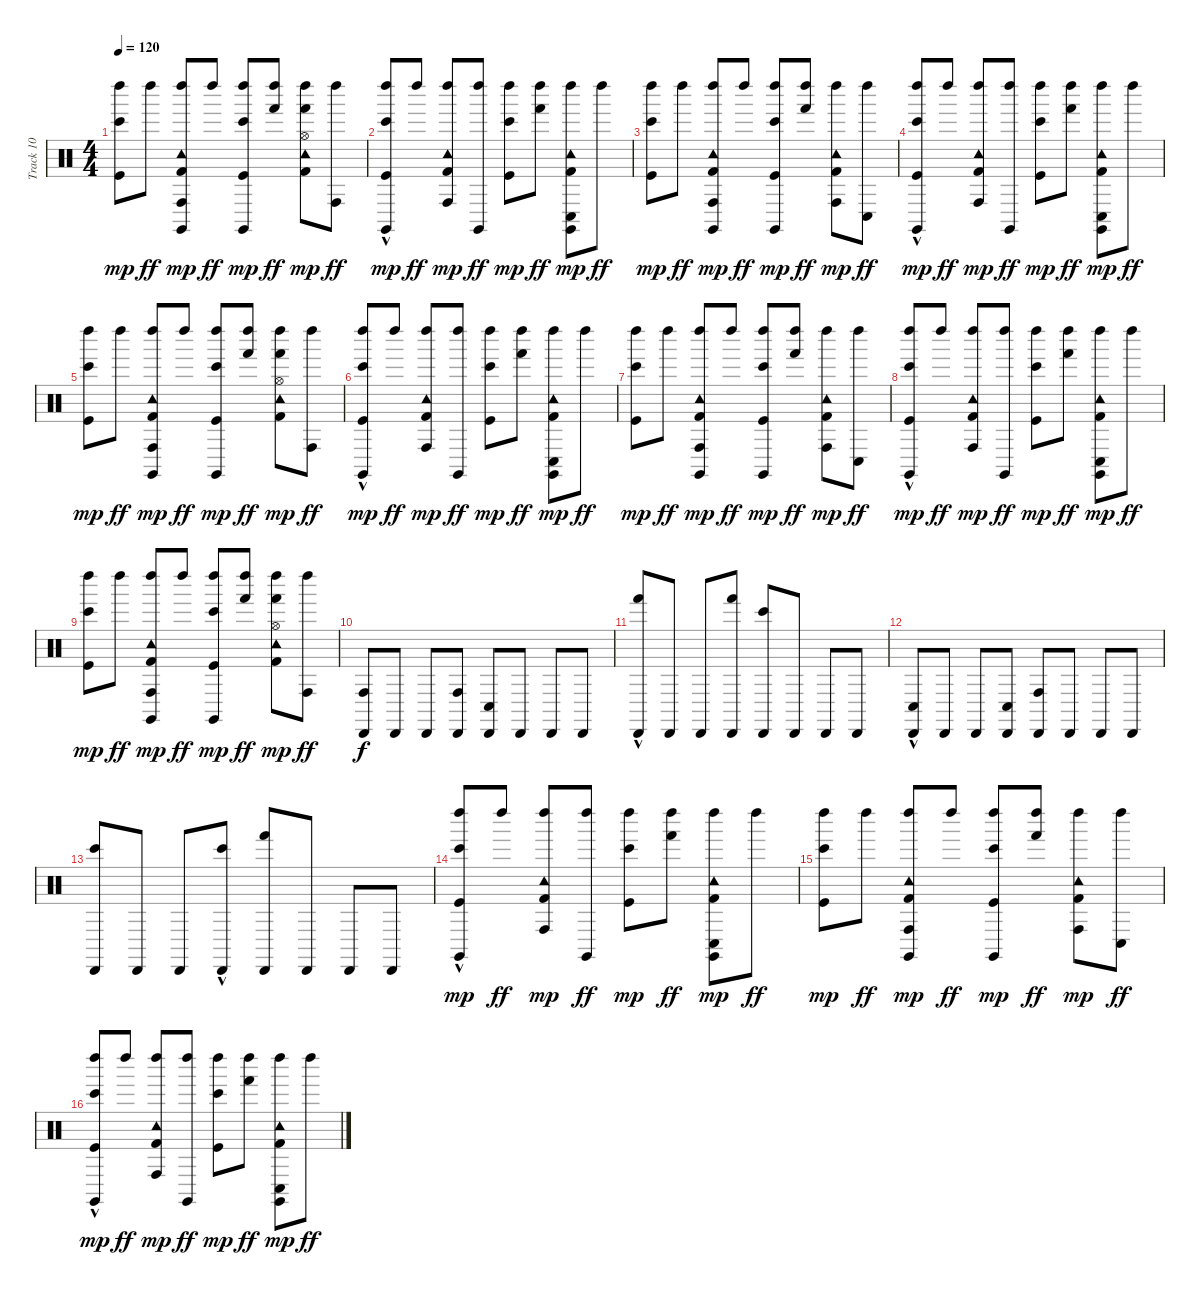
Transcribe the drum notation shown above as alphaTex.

\track ("Track 10" "Track 10") {instrument percussion}
\staff {score}
\articulation defaults
\ts (4 4)
\tempo 120
\clef neutral
\ks c
("Bongo High (hit)" "Left Maraca (hit)" "Kick (hit)").8{dy mp} "Left Maraca (hit)".8{dy ff} ("Conga high (hit)" "Tambourine (hit)" "Left Maraca (hit)" "Kick (hit) 2" "Claves (hit)").8{dy mp} "Left Maraca (hit)".8{dy ff} ("Bongo High (hit)" "Left Maraca (hit)" "Kick (hit)" "Claves (hit)").8{dy mp} ("Hand (hit)" "Left Maraca (hit)").8{dy ff} ("Hand (hit)" "Hi-Hat (open)" "Tambourine (hit)" "Left Maraca (hit)" "Kick (hit) 2").8{dy mp} ("Conga high (hit)" "Left Maraca (hit)").8{dy ff} |
("Bongo High (hit)" "Left Maraca (hit)" "Kick (hit)" "Claves (hit)"{hac}).8{dy mp} "Left Maraca (hit)".8{dy ff} ("Conga high (hit)" "Tambourine (hit)" "Left Maraca (hit)" "Kick (hit) 2").8{dy mp} ("Left Maraca (hit)" "Claves (hit)").8{dy ff} ("Bongo High (hit)" "Left Maraca (hit)" "Kick (hit)").8{dy mp} ("Hand (hit)" "Left Maraca (hit)").8{dy ff} ("Conga low (hit)" "Tambourine (hit)" "Left Maraca (hit)" "Kick (hit) 2" "Claves (hit)").8{dy mp} "Left Maraca (hit)".8{dy ff} |
("Bongo High (hit)" "Left Maraca (hit)" "Kick (hit)").8{dy mp} "Left Maraca (hit)".8{dy ff} ("Conga high (hit)" "Tambourine (hit)" "Left Maraca (hit)" "Kick (hit) 2" "Claves (hit)").8{dy mp} "Left Maraca (hit)".8{dy ff} ("Bongo High (hit)" "Left Maraca (hit)" "Kick (hit)" "Claves (hit)").8{dy mp} ("Hand (hit)" "Left Maraca (hit)").8{dy ff} ("Conga high (hit)" "Tambourine (hit)" "Left Maraca (hit)" "Kick (hit) 2").8{dy mp} ("Conga low (hit)" "Left Maraca (hit)").8{dy ff} |
("Bongo High (hit)" "Left Maraca (hit)" "Kick (hit)" "Claves (hit)"{hac}).8{dy mp} "Left Maraca (hit)".8{dy ff} ("Conga high (hit)" "Tambourine (hit)" "Left Maraca (hit)" "Kick (hit) 2").8{dy mp} ("Left Maraca (hit)" "Claves (hit)").8{dy ff} ("Bongo High (hit)" "Left Maraca (hit)" "Kick (hit)").8{dy mp} ("Hand (hit)" "Left Maraca (hit)").8{dy ff} ("Conga low (hit)" "Tambourine (hit)" "Left Maraca (hit)" "Kick (hit) 2" "Claves (hit)").8{dy mp} "Left Maraca (hit)".8{dy ff} |
("Bongo High (hit)" "Left Maraca (hit)" "Kick (hit)").8{dy mp} "Left Maraca (hit)".8{dy ff} ("Conga high (hit)" "Tambourine (hit)" "Left Maraca (hit)" "Kick (hit) 2" "Claves (hit)").8{dy mp} "Left Maraca (hit)".8{dy ff} ("Bongo High (hit)" "Left Maraca (hit)" "Kick (hit)" "Claves (hit)").8{dy mp} ("Hand (hit)" "Left Maraca (hit)").8{dy ff} ("Hand (hit)" "Hi-Hat (open)" "Tambourine (hit)" "Left Maraca (hit)" "Kick (hit) 2").8{dy mp} ("Conga high (hit)" "Left Maraca (hit)").8{dy ff} |
("Bongo High (hit)" "Left Maraca (hit)" "Kick (hit)" "Claves (hit)"{hac}).8{dy mp} "Left Maraca (hit)".8{dy ff} ("Conga high (hit)" "Tambourine (hit)" "Left Maraca (hit)" "Kick (hit) 2").8{dy mp} ("Left Maraca (hit)" "Claves (hit)").8{dy ff} ("Bongo High (hit)" "Left Maraca (hit)" "Kick (hit)").8{dy mp} ("Hand (hit)" "Left Maraca (hit)").8{dy ff} ("Conga low (hit)" "Tambourine (hit)" "Left Maraca (hit)" "Kick (hit) 2" "Claves (hit)").8{dy mp} "Left Maraca (hit)".8{dy ff} |
("Bongo High (hit)" "Left Maraca (hit)" "Kick (hit)").8{dy mp} "Left Maraca (hit)".8{dy ff} ("Conga high (hit)" "Tambourine (hit)" "Left Maraca (hit)" "Kick (hit) 2" "Claves (hit)").8{dy mp} "Left Maraca (hit)".8{dy ff} ("Bongo High (hit)" "Left Maraca (hit)" "Kick (hit)" "Claves (hit)").8{dy mp} ("Hand (hit)" "Left Maraca (hit)").8{dy ff} ("Conga high (hit)" "Tambourine (hit)" "Left Maraca (hit)" "Kick (hit) 2").8{dy mp} ("Conga low (hit)" "Left Maraca (hit)").8{dy ff} |
("Bongo High (hit)" "Left Maraca (hit)" "Kick (hit)" "Claves (hit)"{hac}).8{dy mp} "Left Maraca (hit)".8{dy ff} ("Conga high (hit)" "Tambourine (hit)" "Left Maraca (hit)" "Kick (hit) 2").8{dy mp} ("Left Maraca (hit)" "Claves (hit)").8{dy ff} ("Bongo High (hit)" "Left Maraca (hit)" "Kick (hit)").8{dy mp} ("Hand (hit)" "Left Maraca (hit)").8{dy ff} ("Conga low (hit)" "Tambourine (hit)" "Left Maraca (hit)" "Kick (hit) 2" "Claves (hit)").8{dy mp} "Left Maraca (hit)".8{dy ff} |
("Bongo High (hit)" "Left Maraca (hit)" "Kick (hit)").8{dy mp} "Left Maraca (hit)".8{dy ff} ("Conga high (hit)" "Tambourine (hit)" "Left Maraca (hit)" "Kick (hit) 2" "Claves (hit)").8{dy mp} "Left Maraca (hit)".8{dy ff} ("Bongo High (hit)" "Left Maraca (hit)" "Kick (hit)" "Claves (hit)").8{dy mp} ("Hand (hit)" "Left Maraca (hit)").8{dy ff} ("Hand (hit)" "Hi-Hat (open)" "Tambourine (hit)" "Left Maraca (hit)" "Kick (hit) 2").8{dy mp} ("Conga high (hit)" "Left Maraca (hit)").8{dy ff} |
("Cabasa (hit)" "Conga high (hit)").8{dy f} "Cabasa (hit)".8 "Cabasa (hit)".8 ("Cabasa (hit)" "Conga high (hit)").8 ("Cabasa (hit)" "Conga low (hit)").8 "Cabasa (hit)".8 "Cabasa (hit)".8 "Cabasa (hit)".8 |
("Cabasa (hit)" "Hand (hit)"{hac}).8 "Cabasa (hit)".8 "Cabasa (hit)".8 ("Cabasa (hit)" "Hand (hit)").8 ("Cabasa (hit)" "Bongo High (hit)").8 "Cabasa (hit)".8 "Cabasa (hit)".8 "Cabasa (hit)".8 |
("Cabasa (hit)" "Conga low (hit)"{hac}).8 "Cabasa (hit)".8 "Cabasa (hit)".8 ("Cabasa (hit)" "Conga low (hit)").8 ("Cabasa (hit)" "Conga high (hit)").8 "Cabasa (hit)".8 "Cabasa (hit)".8 "Cabasa (hit)".8 |
("Cabasa (hit)" "Bongo High (hit)").8 "Cabasa (hit)".8 "Cabasa (hit)".8 ("Cabasa (hit)" "Bongo High (hit)"{hac}).8 ("Cabasa (hit)" "Hand (hit)").8 "Cabasa (hit)".8 "Cabasa (hit)".8 "Cabasa (hit)".8 |
("Bongo High (hit)" "Left Maraca (hit)" "Kick (hit)" "Claves (hit)"{hac}).8{dy mp} "Left Maraca (hit)".8{dy ff} ("Conga high (hit)" "Tambourine (hit)" "Left Maraca (hit)" "Kick (hit) 2").8{dy mp} ("Left Maraca (hit)" "Claves (hit)").8{dy ff} ("Bongo High (hit)" "Left Maraca (hit)" "Kick (hit)").8{dy mp} ("Hand (hit)" "Left Maraca (hit)").8{dy ff} ("Conga low (hit)" "Tambourine (hit)" "Left Maraca (hit)" "Kick (hit) 2" "Claves (hit)").8{dy mp} "Left Maraca (hit)".8{dy ff} |
("Bongo High (hit)" "Left Maraca (hit)" "Kick (hit)").8{dy mp} "Left Maraca (hit)".8{dy ff} ("Conga high (hit)" "Tambourine (hit)" "Left Maraca (hit)" "Kick (hit) 2" "Claves (hit)").8{dy mp} "Left Maraca (hit)".8{dy ff} ("Bongo High (hit)" "Left Maraca (hit)" "Kick (hit)" "Claves (hit)").8{dy mp} ("Hand (hit)" "Left Maraca (hit)").8{dy ff} ("Conga high (hit)" "Tambourine (hit)" "Left Maraca (hit)" "Kick (hit) 2").8{dy mp} ("Conga low (hit)" "Left Maraca (hit)").8{dy ff} |
("Bongo High (hit)" "Left Maraca (hit)" "Kick (hit)" "Claves (hit)"{hac}).8{dy mp} "Left Maraca (hit)".8{dy ff} ("Conga high (hit)" "Tambourine (hit)" "Left Maraca (hit)" "Kick (hit) 2").8{dy mp} ("Left Maraca (hit)" "Claves (hit)").8{dy ff} ("Bongo High (hit)" "Left Maraca (hit)" "Kick (hit)").8{dy mp} ("Hand (hit)" "Left Maraca (hit)").8{dy ff} ("Conga low (hit)" "Tambourine (hit)" "Left Maraca (hit)" "Kick (hit) 2" "Claves (hit)").8{dy mp} "Left Maraca (hit)".8{dy ff}
